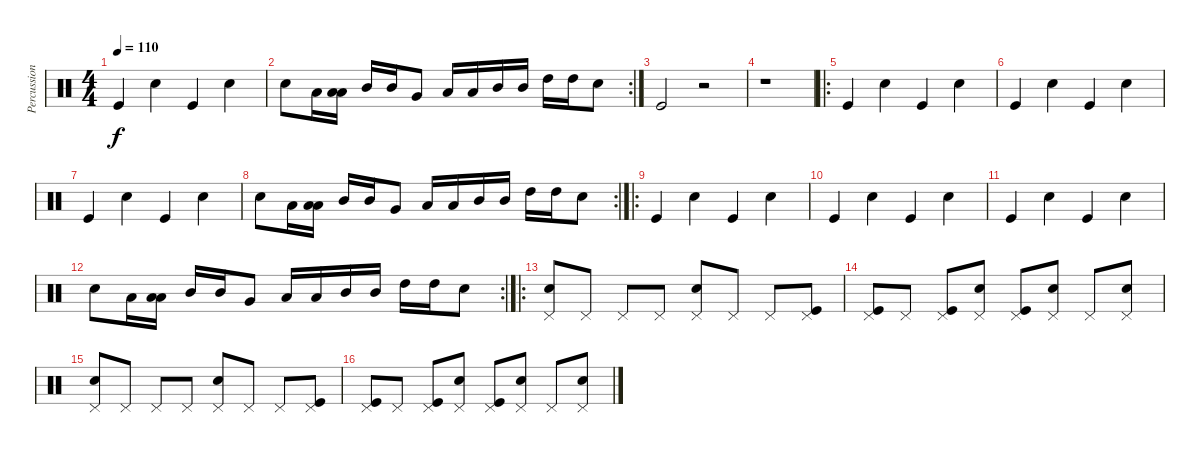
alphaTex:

\track ("Percussion" "Percussion") {instrument percussion}
\staff {score}
\articulation defaults
\ts (4 4)
\tempo 110
\clef neutral
\ks c "Kick (hit)".4{dy f} "Electric Snare (hit)".4 "Kick (hit)".4 "Electric Snare (hit)".4
|
\rc 2 "Electric Snare (hit)".8 "Low Tom (hit)".16
("Low Tom (hit)" "Low Tom (hit)").16 "Mid Tom (hit)".16 "Mid Tom (hit)".16 "Very Low Tom (hit)".8 "Low Tom (hit)".16 "Low Tom (hit)".16 "Mid Tom (hit)".16 "Mid Tom (hit)".16 "High Tom (hit)".16 "High Tom (hit)".16 "Electric Snare (hit)".8 |
"Kick (hit)".2 r.2 |
r.1 |
\ro "Kick (hit)".4 "Electric Snare (hit)".4 "Kick (hit)".4 "Electric Snare (hit)".4
|
"Kick (hit)".4 "Electric Snare (hit)".4 "Kick (hit)".4 "Electric Snare (hit)".4 |
"Kick (hit)".4 "Electric Snare (hit)".4 "Kick (hit)".4 "Electric Snare (hit)".4 |
\rc 2 "Electric Snare (hit)".8 "Low Tom (hit)".16
("Low Tom (hit)" "Low Tom (hit)").16 "Mid Tom (hit)".16 "Mid Tom (hit)".16 "Very Low Tom (hit)".8 "Low Tom (hit)".16 "Low Tom (hit)".16 "Mid Tom (hit)".16 "Mid Tom (hit)".16 "High Tom (hit)".16 "High Tom (hit)".16 "Electric Snare (hit)".8 |
\ro "Kick (hit)".4 "Electric Snare (hit)".4 "Kick (hit)".4 "Electric Snare (hit)".4
|
"Kick (hit)".4 "Electric Snare (hit)".4 "Kick (hit)".4 "Electric Snare (hit)".4 |
"Kick (hit)".4 "Electric Snare (hit)".4 "Kick (hit)".4 "Electric Snare (hit)".4 |
\rc 2 "Electric Snare (hit)".8 "Low Tom (hit)".16
("Low Tom (hit)" "Low Tom (hit)").16 "Mid Tom (hit)".16 "Mid Tom (hit)".16 "Very Low Tom (hit)".8 "Low Tom (hit)".16 "Low Tom (hit)".16 "Mid Tom (hit)".16 "Mid Tom (hit)".16 "High Tom (hit)".16 "High Tom (hit)".16 "Electric Snare (hit)".8 |
\ro
("Electric Snare (hit)" "Pedal Hi-Hat (hit)").8 "Pedal Hi-Hat (hit)".8 "Pedal Hi-Hat (hit)".8 "Pedal Hi-Hat (hit)".8 ("Electric Snare (hit)" "Pedal Hi-Hat (hit)").8 "Pedal Hi-Hat (hit)".8 "Pedal Hi-Hat (hit)".8 ("Kick (hit)" "Pedal Hi-Hat (hit)").8 |
("Pedal Hi-Hat (hit)" "Kick (hit)").8 "Pedal Hi-Hat (hit)".8 ("Pedal Hi-Hat (hit)" "Kick (hit)").8 ("Pedal Hi-Hat (hit)" "Electric Snare (hit)").8 ("Pedal Hi-Hat (hit)" "Kick (hit)").8 ("Pedal Hi-Hat (hit)" "Electric Snare (hit)").8 "Pedal Hi-Hat (hit)".8 ("Pedal Hi-Hat (hit)" "Electric Snare (hit)").8 |
("Electric Snare (hit)" "Pedal Hi-Hat (hit)").8 "Pedal Hi-Hat (hit)".8 "Pedal Hi-Hat (hit)".8 "Pedal Hi-Hat (hit)".8 ("Electric Snare (hit)" "Pedal Hi-Hat (hit)").8 "Pedal Hi-Hat (hit)".8 "Pedal Hi-Hat (hit)".8 ("Kick (hit)" "Pedal Hi-Hat (hit)").8 |
("Pedal Hi-Hat (hit)" "Kick (hit)").8 "Pedal Hi-Hat (hit)".8 ("Pedal Hi-Hat (hit)" "Kick (hit)").8 ("Pedal Hi-Hat (hit)" "Electric Snare (hit)").8 ("Pedal Hi-Hat (hit)" "Kick (hit)").8 ("Pedal Hi-Hat (hit)" "Electric Snare (hit)").8 "Pedal Hi-Hat (hit)".8 ("Pedal Hi-Hat (hit)" "Electric Snare (hit)").8
